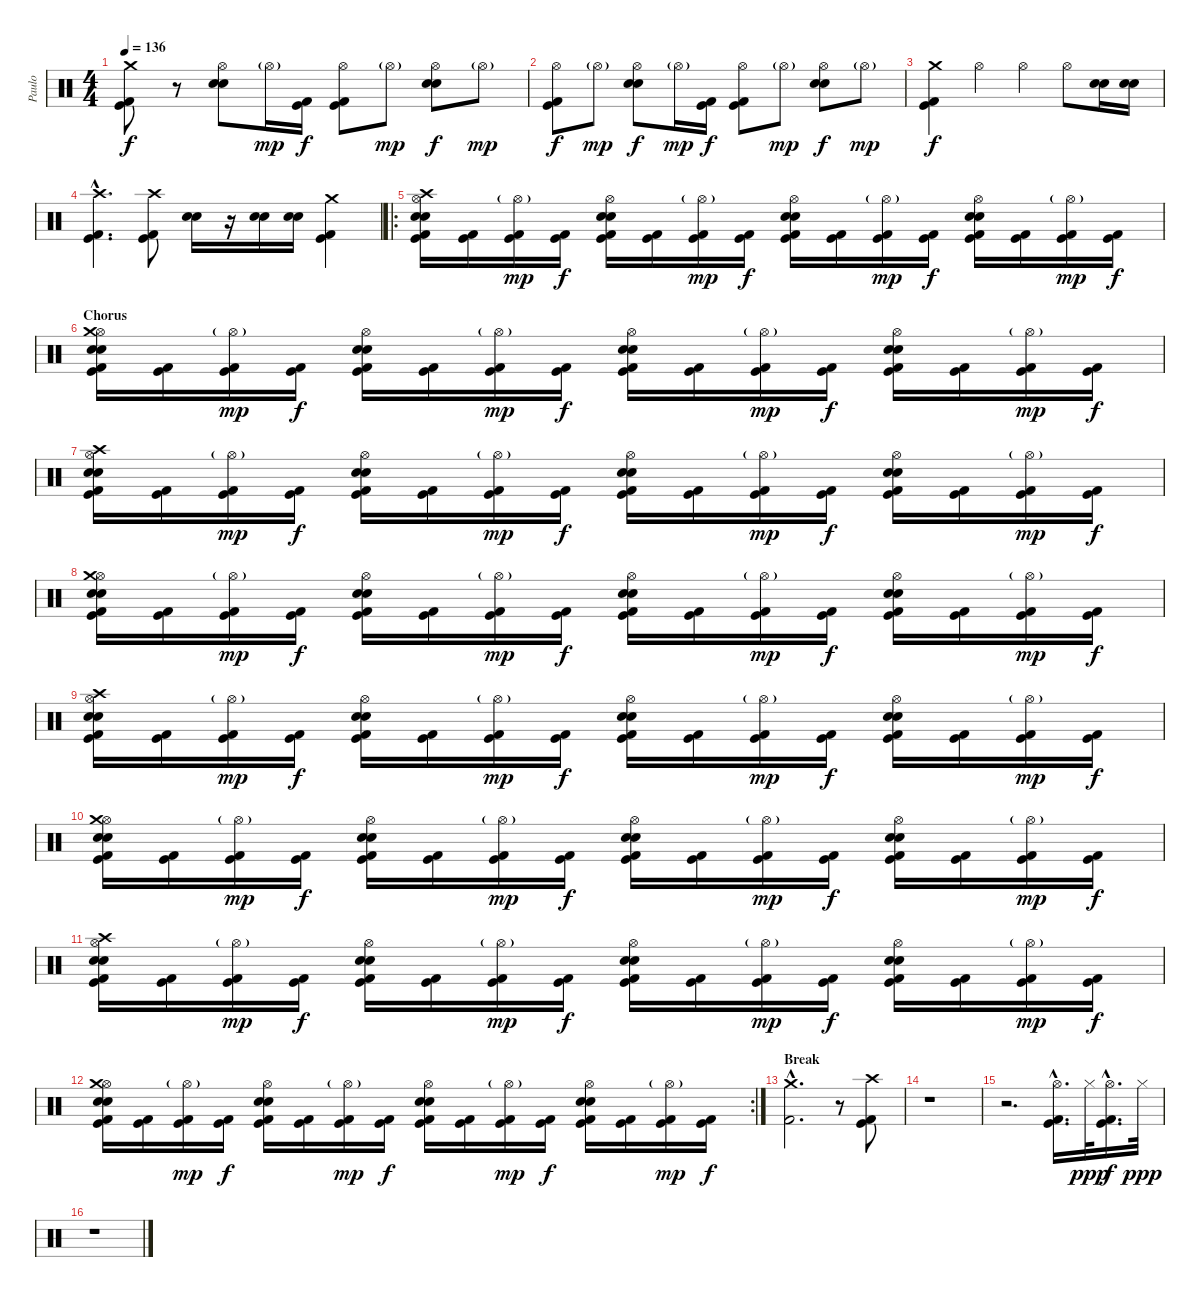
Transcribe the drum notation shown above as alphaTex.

\track ("Paulo" "Paulo") {instrument percussion}
\staff {score}
\articulation defaults
\ts (4 4)
\tempo 136
\clef neutral
\ks c
("Crash medium (hit)" "Kick (hit) 2" "Kick (hit)").8{dy f} r.8 ("Hi-Hat (open)" "Electric Snare (hit)" "Snare (hit) 2").8 "Hi-Hat (open)"{g}.16{dy mp} ("Kick (hit) 2" "Kick (hit)").16{dy f} ("Hi-Hat (open)" "Kick (hit) 2" "Kick (hit)").8 "Hi-Hat (open)"{g}.8{dy mp} ("Hi-Hat (open)" "Electric Snare (hit)" "Snare (hit) 2").8{dy f} "Hi-Hat (open)"{g}.8{dy mp} |
("Hi-Hat (open)" "Kick (hit) 2" "Kick (hit)").8{dy f} "Hi-Hat (open)"{g}.8{dy mp} ("Hi-Hat (open)" "Electric Snare (hit)" "Snare (hit) 2").8{dy f} "Hi-Hat (open)"{g}.16{dy mp} ("Kick (hit) 2" "Kick (hit)").16{dy f} ("Hi-Hat (open)" "Kick (hit) 2" "Kick (hit)").8 "Hi-Hat (open)"{g}.8{dy mp} ("Hi-Hat (open)" "Electric Snare (hit)" "Snare (hit) 2").8{dy f} "Hi-Hat (open)"{g}.8{dy mp} |
("Crash medium (hit)" "Kick (hit) 2" "Kick (hit)").4{dy f} "Hi-Hat (open)".4 "Hi-Hat (open)".4 "Hi-Hat (open)".8 ("Snare (hit) 2" "Electric Snare (hit)").16 ("Snare (hit) 2" "Electric Snare (hit)").16 |
("Crash high (hit)"{hac} "Kick (hit) 2"{hac} "Kick (hit)"{hac}).4{d} ("Crash high (hit)" "Kick (hit) 2" "Kick (hit)").8 ("Snare (hit) 2" "Electric Snare (hit)").16 r.16 ("Snare (hit) 2" "Electric Snare (hit)").16 ("Snare (hit) 2" "Electric Snare (hit)").16 ("Crash medium (hit)" "Kick (hit) 2" "Kick (hit)").4 |
\ro
("Hi-Hat (open)" "Snare (hit) 2" "Electric Snare (hit)" "Crash high (hit)" "Kick (hit) 2" "Kick (hit)").16 ("Kick (hit) 2" "Kick (hit)").16 ("Hi-Hat (open)"{g} "Kick (hit) 2" "Kick (hit)").16{dy mp} ("Kick (hit) 2" "Kick (hit)").16{dy f} ("Hi-Hat (open)" "Snare (hit) 2" "Electric Snare (hit)" "Kick (hit) 2" "Kick (hit)").16 ("Kick (hit) 2" "Kick (hit)").16 ("Hi-Hat (open)"{g} "Kick (hit) 2" "Kick (hit)").16{dy mp} ("Kick (hit) 2" "Kick (hit)").16{dy f} ("Hi-Hat (open)" "Snare (hit) 2" "Electric Snare (hit)" "Kick (hit) 2" "Kick (hit)").16 ("Kick (hit) 2" "Kick (hit)").16 ("Hi-Hat (open)"{g} "Kick (hit) 2" "Kick (hit)").16{dy mp} ("Kick (hit) 2" "Kick (hit)").16{dy f} ("Hi-Hat (open)" "Snare (hit) 2" "Electric Snare (hit)" "Kick (hit) 2" "Kick (hit)").16 ("Kick (hit) 2" "Kick (hit)").16 ("Hi-Hat (open)"{g} "Kick (hit) 2" "Kick (hit)").16{dy mp} ("Kick (hit) 2" "Kick (hit)").16{dy f} |
\section ("" "Chorus")
("Hi-Hat (open)" "Snare (hit) 2" "Electric Snare (hit)" "Crash medium (hit)" "Kick (hit) 2" "Kick (hit)").16 ("Kick (hit) 2" "Kick (hit)").16 ("Hi-Hat (open)"{g} "Kick (hit) 2" "Kick (hit)").16{dy mp} ("Kick (hit) 2" "Kick (hit)").16{dy f} ("Hi-Hat (open)" "Snare (hit) 2" "Electric Snare (hit)" "Kick (hit) 2" "Kick (hit)").16 ("Kick (hit) 2" "Kick (hit)").16 ("Hi-Hat (open)"{g} "Kick (hit) 2" "Kick (hit)").16{dy mp} ("Kick (hit) 2" "Kick (hit)").16{dy f} ("Hi-Hat (open)" "Snare (hit) 2" "Electric Snare (hit)" "Kick (hit) 2" "Kick (hit)").16 ("Kick (hit) 2" "Kick (hit)").16 ("Hi-Hat (open)"{g} "Kick (hit) 2" "Kick (hit)").16{dy mp} ("Kick (hit) 2" "Kick (hit)").16{dy f} ("Hi-Hat (open)" "Snare (hit) 2" "Electric Snare (hit)" "Kick (hit) 2" "Kick (hit)").16 ("Kick (hit) 2" "Kick (hit)").16 ("Hi-Hat (open)"{g} "Kick (hit) 2" "Kick (hit)").16{dy mp} ("Kick (hit) 2" "Kick (hit)").16{dy f} |
("Hi-Hat (open)" "Snare (hit) 2" "Electric Snare (hit)" "Crash high (hit)" "Kick (hit) 2" "Kick (hit)").16 ("Kick (hit) 2" "Kick (hit)").16 ("Hi-Hat (open)"{g} "Kick (hit) 2" "Kick (hit)").16{dy mp} ("Kick (hit) 2" "Kick (hit)").16{dy f} ("Hi-Hat (open)" "Snare (hit) 2" "Electric Snare (hit)" "Kick (hit) 2" "Kick (hit)").16 ("Kick (hit) 2" "Kick (hit)").16 ("Hi-Hat (open)"{g} "Kick (hit) 2" "Kick (hit)").16{dy mp} ("Kick (hit) 2" "Kick (hit)").16{dy f} ("Hi-Hat (open)" "Snare (hit) 2" "Electric Snare (hit)" "Kick (hit) 2" "Kick (hit)").16 ("Kick (hit) 2" "Kick (hit)").16 ("Hi-Hat (open)"{g} "Kick (hit) 2" "Kick (hit)").16{dy mp} ("Kick (hit) 2" "Kick (hit)").16{dy f} ("Hi-Hat (open)" "Snare (hit) 2" "Electric Snare (hit)" "Kick (hit) 2" "Kick (hit)").16 ("Kick (hit) 2" "Kick (hit)").16 ("Hi-Hat (open)"{g} "Kick (hit) 2" "Kick (hit)").16{dy mp} ("Kick (hit) 2" "Kick (hit)").16{dy f} |
("Hi-Hat (open)" "Snare (hit) 2" "Electric Snare (hit)" "Crash medium (hit)" "Kick (hit) 2" "Kick (hit)").16 ("Kick (hit) 2" "Kick (hit)").16 ("Hi-Hat (open)"{g} "Kick (hit) 2" "Kick (hit)").16{dy mp} ("Kick (hit) 2" "Kick (hit)").16{dy f} ("Hi-Hat (open)" "Snare (hit) 2" "Electric Snare (hit)" "Kick (hit) 2" "Kick (hit)").16 ("Kick (hit) 2" "Kick (hit)").16 ("Hi-Hat (open)"{g} "Kick (hit) 2" "Kick (hit)").16{dy mp} ("Kick (hit) 2" "Kick (hit)").16{dy f} ("Hi-Hat (open)" "Snare (hit) 2" "Electric Snare (hit)" "Kick (hit) 2" "Kick (hit)").16 ("Kick (hit) 2" "Kick (hit)").16 ("Hi-Hat (open)"{g} "Kick (hit) 2" "Kick (hit)").16{dy mp} ("Kick (hit) 2" "Kick (hit)").16{dy f} ("Hi-Hat (open)" "Snare (hit) 2" "Electric Snare (hit)" "Kick (hit) 2" "Kick (hit)").16 ("Kick (hit) 2" "Kick (hit)").16 ("Hi-Hat (open)"{g} "Kick (hit) 2" "Kick (hit)").16{dy mp} ("Kick (hit) 2" "Kick (hit)").16{dy f} |
("Hi-Hat (open)" "Snare (hit) 2" "Electric Snare (hit)" "Crash high (hit)" "Kick (hit) 2" "Kick (hit)").16 ("Kick (hit) 2" "Kick (hit)").16 ("Hi-Hat (open)"{g} "Kick (hit) 2" "Kick (hit)").16{dy mp} ("Kick (hit) 2" "Kick (hit)").16{dy f} ("Hi-Hat (open)" "Snare (hit) 2" "Electric Snare (hit)" "Kick (hit) 2" "Kick (hit)").16 ("Kick (hit) 2" "Kick (hit)").16 ("Hi-Hat (open)"{g} "Kick (hit) 2" "Kick (hit)").16{dy mp} ("Kick (hit) 2" "Kick (hit)").16{dy f} ("Hi-Hat (open)" "Snare (hit) 2" "Electric Snare (hit)" "Kick (hit) 2" "Kick (hit)").16 ("Kick (hit) 2" "Kick (hit)").16 ("Hi-Hat (open)"{g} "Kick (hit) 2" "Kick (hit)").16{dy mp} ("Kick (hit) 2" "Kick (hit)").16{dy f} ("Hi-Hat (open)" "Snare (hit) 2" "Electric Snare (hit)" "Kick (hit) 2" "Kick (hit)").16 ("Kick (hit) 2" "Kick (hit)").16 ("Hi-Hat (open)"{g} "Kick (hit) 2" "Kick (hit)").16{dy mp} ("Kick (hit) 2" "Kick (hit)").16{dy f} |
("Hi-Hat (open)" "Snare (hit) 2" "Electric Snare (hit)" "Crash medium (hit)" "Kick (hit) 2" "Kick (hit)").16 ("Kick (hit) 2" "Kick (hit)").16 ("Hi-Hat (open)"{g} "Kick (hit) 2" "Kick (hit)").16{dy mp} ("Kick (hit) 2" "Kick (hit)").16{dy f} ("Hi-Hat (open)" "Snare (hit) 2" "Electric Snare (hit)" "Kick (hit) 2" "Kick (hit)").16 ("Kick (hit) 2" "Kick (hit)").16 ("Hi-Hat (open)"{g} "Kick (hit) 2" "Kick (hit)").16{dy mp} ("Kick (hit) 2" "Kick (hit)").16{dy f} ("Hi-Hat (open)" "Snare (hit) 2" "Electric Snare (hit)" "Kick (hit) 2" "Kick (hit)").16 ("Kick (hit) 2" "Kick (hit)").16 ("Hi-Hat (open)"{g} "Kick (hit) 2" "Kick (hit)").16{dy mp} ("Kick (hit) 2" "Kick (hit)").16{dy f} ("Hi-Hat (open)" "Snare (hit) 2" "Electric Snare (hit)" "Kick (hit) 2" "Kick (hit)").16 ("Kick (hit) 2" "Kick (hit)").16 ("Hi-Hat (open)"{g} "Kick (hit) 2" "Kick (hit)").16{dy mp} ("Kick (hit) 2" "Kick (hit)").16{dy f} |
("Hi-Hat (open)" "Snare (hit) 2" "Electric Snare (hit)" "Crash high (hit)" "Kick (hit) 2" "Kick (hit)").16 ("Kick (hit) 2" "Kick (hit)").16 ("Hi-Hat (open)"{g} "Kick (hit) 2" "Kick (hit)").16{dy mp} ("Kick (hit) 2" "Kick (hit)").16{dy f} ("Hi-Hat (open)" "Snare (hit) 2" "Electric Snare (hit)" "Kick (hit) 2" "Kick (hit)").16 ("Kick (hit) 2" "Kick (hit)").16 ("Hi-Hat (open)"{g} "Kick (hit) 2" "Kick (hit)").16{dy mp} ("Kick (hit) 2" "Kick (hit)").16{dy f} ("Hi-Hat (open)" "Snare (hit) 2" "Electric Snare (hit)" "Kick (hit) 2" "Kick (hit)").16 ("Kick (hit) 2" "Kick (hit)").16 ("Hi-Hat (open)"{g} "Kick (hit) 2" "Kick (hit)").16{dy mp} ("Kick (hit) 2" "Kick (hit)").16{dy f} ("Hi-Hat (open)" "Snare (hit) 2" "Electric Snare (hit)" "Kick (hit) 2" "Kick (hit)").16 ("Kick (hit) 2" "Kick (hit)").16 ("Hi-Hat (open)"{g} "Kick (hit) 2" "Kick (hit)").16{dy mp} ("Kick (hit) 2" "Kick (hit)").16{dy f} |
\rc 2
("Hi-Hat (open)" "Snare (hit) 2" "Electric Snare (hit)" "Crash medium (hit)" "Kick (hit) 2" "Kick (hit)").16 ("Kick (hit) 2" "Kick (hit)").16 ("Hi-Hat (open)"{g} "Kick (hit) 2" "Kick (hit)").16{dy mp} ("Kick (hit) 2" "Kick (hit)").16{dy f} ("Hi-Hat (open)" "Snare (hit) 2" "Electric Snare (hit)" "Kick (hit) 2" "Kick (hit)").16 ("Kick (hit) 2" "Kick (hit)").16 ("Hi-Hat (open)"{g} "Kick (hit) 2" "Kick (hit)").16{dy mp} ("Kick (hit) 2" "Kick (hit)").16{dy f} ("Hi-Hat (open)" "Snare (hit) 2" "Electric Snare (hit)" "Kick (hit) 2" "Kick (hit)").16 ("Kick (hit) 2" "Kick (hit)").16 ("Hi-Hat (open)"{g} "Kick (hit) 2" "Kick (hit)").16{dy mp} ("Kick (hit) 2" "Kick (hit)").16{dy f} ("Hi-Hat (open)" "Snare (hit) 2" "Electric Snare (hit)" "Kick (hit) 2" "Kick (hit)").16 ("Kick (hit) 2" "Kick (hit)").16 ("Hi-Hat (open)"{g} "Kick (hit) 2" "Kick (hit)").16{dy mp} ("Kick (hit) 2" "Kick (hit)").16{dy f} |
\section ("" "Break")
("Crash medium (hit)"{hac} "Kick (hit) 2"{hac}).2{d} r.8 ("Crash high (hit)" "Kick (hit) 2" "Kick (hit)").8 |
r.1 |
r.2{d} ("Hi-Hat (open)"{hac} "Kick (hit) 2"{hac} "Kick (hit)"{hac}).16{d} "Hi-Hat (closed)".32{dy ppp} ("Hi-Hat (open)"{hac} "Kick (hit) 2"{hac} "Kick (hit)"{hac}).16{d dy f} "Hi-Hat (closed)".32{dy ppp} |
r.1
